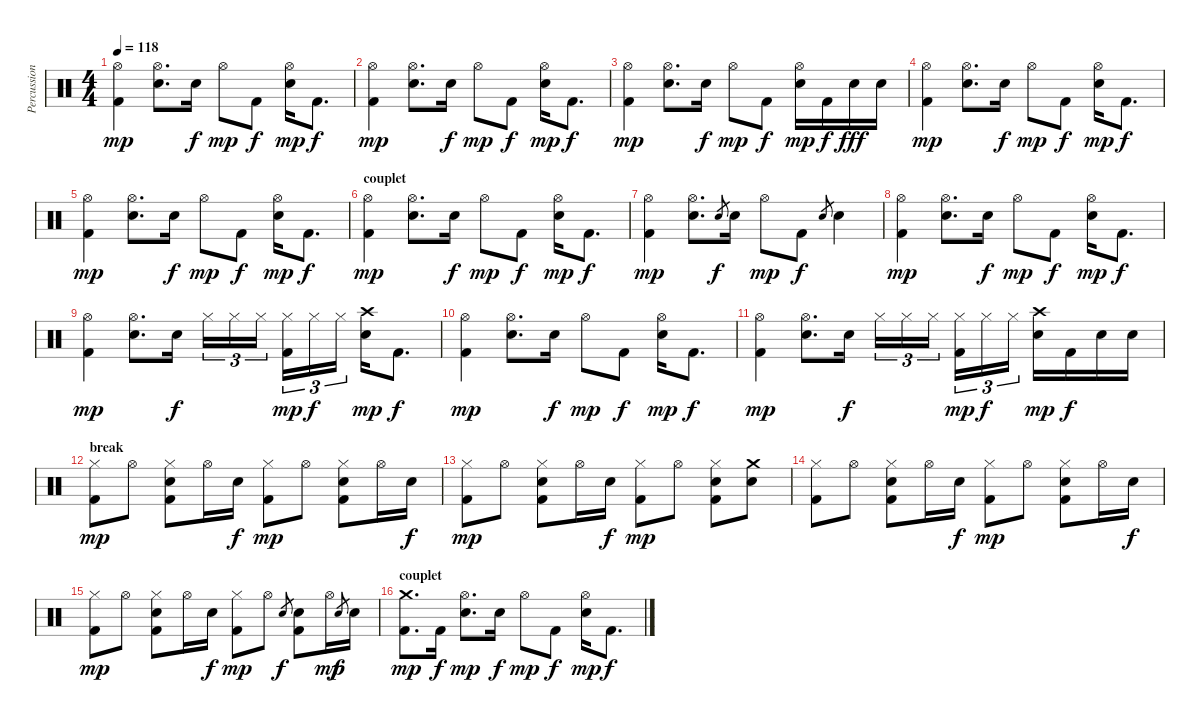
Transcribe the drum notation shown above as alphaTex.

\track ("Percussions" "Percussion") {instrument percussion}
\staff {score}
\articulation defaults
\ts (4 4)
\tempo 118
\clef neutral
\ks c
("Hi-Hat (open)" "Kick (hit) 2").4{dy mp} ("Hi-Hat (open)" "Snare (hit) 2").8{d} "Snare (hit) 2".16{dy f} "Hi-Hat (open)".8{dy mp} "Kick (hit) 2".8{dy f} ("Hi-Hat (open)" "Snare (hit) 2").16{dy mp} "Kick (hit) 2".8{d dy f} |
("Hi-Hat (open)" "Kick (hit) 2").4{dy mp} ("Hi-Hat (open)" "Snare (hit) 2").8{d} "Snare (hit) 2".16{dy f} "Hi-Hat (open)".8{dy mp} "Kick (hit) 2".8{dy f} ("Hi-Hat (open)" "Snare (hit) 2").16{dy mp} "Kick (hit) 2".8{d dy f} |
("Hi-Hat (open)" "Kick (hit) 2").4{dy mp} ("Hi-Hat (open)" "Snare (hit) 2").8{d} "Snare (hit) 2".16{dy f} "Hi-Hat (open)".8{dy mp} "Kick (hit) 2".8{dy f} ("Hi-Hat (open)" "Snare (hit) 2").16{dy mp} "Kick (hit) 2".16{dy f} "Snare (hit) 2".16{dy fff} "Snare (hit) 2".16 |
("Hi-Hat (open)" "Kick (hit) 2").4{dy mp} ("Hi-Hat (open)" "Snare (hit) 2").8{d} "Snare (hit) 2".16{dy f} "Hi-Hat (open)".8{dy mp} "Kick (hit) 2".8{dy f} ("Hi-Hat (open)" "Snare (hit) 2").16{dy mp} "Kick (hit) 2".8{d dy f} |
("Hi-Hat (open)" "Kick (hit) 2").4{dy mp} ("Hi-Hat (open)" "Snare (hit) 2").8{d} "Snare (hit) 2".16{dy f} "Hi-Hat (open)".8{dy mp} "Kick (hit) 2".8{dy f} ("Hi-Hat (open)" "Snare (hit) 2").16{dy mp} "Kick (hit) 2".8{d dy f} |
\section ("" "couplet")
("Hi-Hat (open)" "Kick (hit) 2").4{dy mp} ("Hi-Hat (open)" "Snare (hit) 2").8{d} "Snare (hit) 2".16{dy f} "Hi-Hat (open)".8{dy mp} "Kick (hit) 2".8{dy f} ("Hi-Hat (open)" "Snare (hit) 2").16{dy mp} "Kick (hit) 2".8{d dy f} |
("Hi-Hat (open)" "Kick (hit) 2").4{dy mp} ("Hi-Hat (open)" "Snare (hit) 2").8{d} "Snare (hit) 2".8{gr dy f} "Snare (hit) 2".16 "Hi-Hat (open)".8{dy mp} "Kick (hit) 2".8{dy f} "Snare (hit) 2".8{gr} "Snare (hit) 2".4 |
("Hi-Hat (open)" "Kick (hit) 2").4{dy mp} ("Hi-Hat (open)" "Snare (hit) 2").8{d} "Snare (hit) 2".16{dy f} "Hi-Hat (open)".8{dy mp} "Kick (hit) 2".8{dy f} ("Hi-Hat (open)" "Snare (hit) 2").16{dy mp} "Kick (hit) 2".8{d dy f} |
("Hi-Hat (open)" "Kick (hit) 2").4{dy mp} ("Hi-Hat (open)" "Snare (hit) 2").8{d} "Snare (hit) 2".16{dy f} "Hi-Hat (closed)".16{tu (3 2)} "Hi-Hat (closed)".16{tu (3 2)} "Hi-Hat (closed)".16{tu (3 2)} ("Hi-Hat (closed)" "Kick (hit) 2").16{tu (3 2) dy mp} "Hi-Hat (closed)".16{tu (3 2) dy f} "Hi-Hat (closed)".16{tu (3 2)} ("Crash high (hit)" "Snare (hit) 2").16{dy mp} "Kick (hit) 2".8{d dy f} |
("Hi-Hat (open)" "Kick (hit) 2").4{dy mp} ("Hi-Hat (open)" "Snare (hit) 2").8{d} "Snare (hit) 2".16{dy f} "Hi-Hat (open)".8{dy mp} "Kick (hit) 2".8{dy f} ("Hi-Hat (open)" "Snare (hit) 2").16{dy mp} "Kick (hit) 2".8{d dy f} |
("Hi-Hat (open)" "Kick (hit) 2").4{dy mp} ("Hi-Hat (open)" "Snare (hit) 2").8{d} "Snare (hit) 2".16{dy f} "Hi-Hat (closed)".16{tu (3 2)} "Hi-Hat (closed)".16{tu (3 2)} "Hi-Hat (closed)".16{tu (3 2)} ("Hi-Hat (closed)" "Kick (hit) 2").16{tu (3 2) dy mp} "Hi-Hat (closed)".16{tu (3 2) dy f} "Hi-Hat (closed)".16{tu (3 2)} ("Crash high (hit)" "Snare (hit) 2").16{dy mp} "Kick (hit) 2".16{dy f} "Snare (hit) 2".16 "Snare (hit) 2".16 |
\section ("" "break")
("Hi-Hat (closed)" "Kick (hit) 2").8{dy mp} "Hi-Hat (open)".8 ("Hi-Hat (closed)" "Snare (hit) 2" "Kick (hit) 2").8 "Hi-Hat (open)".16 "Snare (hit) 2".16{dy f} ("Hi-Hat (closed)" "Kick (hit) 2").8{dy mp} "Hi-Hat (open)".8 ("Hi-Hat (closed)" "Snare (hit) 2" "Kick (hit) 2").8 "Hi-Hat (open)".16 "Snare (hit) 2".16{dy f} |
("Hi-Hat (closed)" "Kick (hit) 2").8{dy mp} "Hi-Hat (open)".8 ("Hi-Hat (closed)" "Snare (hit) 2" "Kick (hit) 2").8 "Hi-Hat (open)".16 "Snare (hit) 2".16{dy f} ("Hi-Hat (closed)" "Kick (hit) 2").8{dy mp} "Hi-Hat (open)".8 ("Hi-Hat (closed)" "Snare (hit) 2" "Kick (hit) 2").8 ("Crash medium (hit)" "Snare (hit) 2").8 |
("Hi-Hat (closed)" "Kick (hit) 2").8 "Hi-Hat (open)".8 ("Hi-Hat (closed)" "Snare (hit) 2" "Kick (hit) 2").8 "Hi-Hat (open)".16 "Snare (hit) 2".16{dy f} ("Hi-Hat (closed)" "Kick (hit) 2").8{dy mp} "Hi-Hat (open)".8 ("Hi-Hat (closed)" "Snare (hit) 2" "Kick (hit) 2").8 "Hi-Hat (open)".16 "Snare (hit) 2".16{dy f} |
("Hi-Hat (closed)" "Kick (hit) 2").8{dy mp} "Hi-Hat (open)".8 ("Hi-Hat (closed)" "Snare (hit) 2" "Kick (hit) 2").8 "Hi-Hat (open)".16 "Snare (hit) 2".16{dy f} ("Hi-Hat (closed)" "Kick (hit) 2").8{dy mp} "Hi-Hat (open)".8 "Snare (hit) 2".8{gr dy f} ("Snare (hit) 2" "Kick (hit) 2").8 "Hi-Hat (open)".16{dy mp} "Snare (hit) 2".8{gr dy f} "Snare (hit) 2".16 |
\section ("" "couplet")
("Crash medium (hit)" "Kick (hit) 2").8{d dy mp} "Kick (hit) 2".16{dy f} ("Hi-Hat (open)" "Snare (hit) 2").8{d dy mp} "Electric Snare (hit)".16{dy f} "Hi-Hat (open)".8{dy mp} "Kick (hit) 2".8{dy f} ("Hi-Hat (open)" "Snare (hit) 2").16{dy mp} "Kick (hit) 2".8{d dy f}
